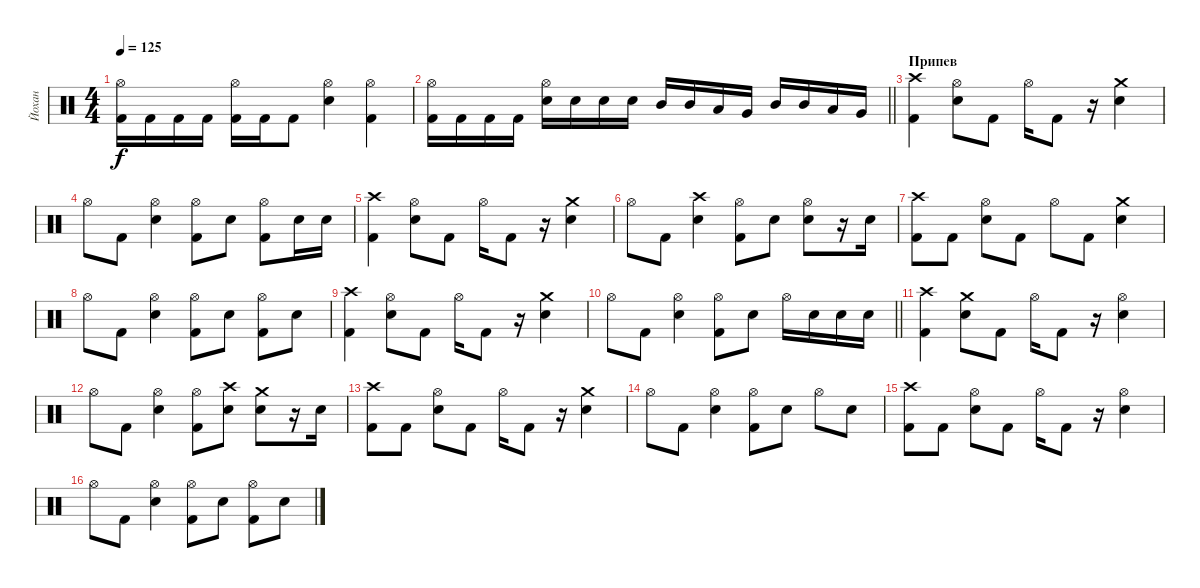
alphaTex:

\track ("Йохан" "Йохан") {instrument percussion}
\staff {score}
\articulation defaults
\ts (4 4)
\tempo 125
\clef neutral
\ks c
("Hi-Hat (open)" "Kick (hit) 2").16{dy f} "Kick (hit) 2".16 "Kick (hit) 2".16 "Kick (hit) 2".16 ("Hi-Hat (open)" "Kick (hit) 2").16 "Kick (hit) 2".16 "Kick (hit) 2".8 ("Hi-Hat (open)" "Snare (hit) 2").4 ("Hi-Hat (open)" "Kick (hit) 2").4 |
\barLineRight lightlight
("Hi-Hat (open)" "Kick (hit) 2").16 "Kick (hit) 2".16 "Kick (hit) 2".16 "Kick (hit) 2".16 ("Hi-Hat (open)" "Snare (hit) 2").16 "Snare (hit) 2".16 "Snare (hit) 2".16 "Snare (hit) 2".16 "Mid Tom (hit)".16 "Mid Tom (hit)".16 "Low Tom (hit)".16 "Very Low Tom (hit)".16 "Mid Tom (hit)".16 "Mid Tom (hit)".16 "Low Tom (hit)".16 "Very Low Tom (hit)".16 |
\section ("" "Припев")
("Crash high (hit)" "Kick (hit) 2").4 ("Hi-Hat (open)" "Snare (hit) 2").8 "Kick (hit) 2".8 "Hi-Hat (open)".16 "Kick (hit) 2".8 r.16 ("Crash medium (hit)" "Snare (hit) 2").4 |
"Hi-Hat (open)".8 "Kick (hit) 2".8 ("Hi-Hat (open)" "Snare (hit) 2").4 ("Hi-Hat (open)" "Kick (hit) 2").8 "Snare (hit) 2".8 ("Hi-Hat (open)" "Kick (hit) 2").8 "Snare (hit) 2".16 "Snare (hit) 2".16 |
("Crash high (hit)" "Kick (hit) 2").4 ("Hi-Hat (open)" "Snare (hit) 2").8 "Kick (hit) 2".8 "Hi-Hat (open)".16 "Kick (hit) 2".8 r.16 ("Crash medium (hit)" "Snare (hit) 2").4 |
"Hi-Hat (open)".8 "Kick (hit) 2".8 ("Crash high (hit)" "Snare (hit) 2").4 ("Hi-Hat (open)" "Kick (hit) 2").8 "Snare (hit) 2".8 ("Hi-Hat (open)" "Snare (hit) 2").8 r.16 "Snare (hit) 2".16 |
("Crash high (hit)" "Kick (hit) 2").8 "Kick (hit) 2".8 ("Hi-Hat (open)" "Snare (hit) 2").8 "Kick (hit) 2".8 "Hi-Hat (open)".8 "Kick (hit) 2".8 ("Crash medium (hit)" "Snare (hit) 2").4 |
"Hi-Hat (open)".8 "Kick (hit) 2".8 ("Hi-Hat (open)" "Snare (hit) 2").4 ("Hi-Hat (open)" "Kick (hit) 2").8 "Snare (hit) 2".8 ("Hi-Hat (open)" "Kick (hit) 2").8 "Snare (hit) 2".8 |
("Crash high (hit)" "Kick (hit) 2").4 ("Hi-Hat (open)" "Snare (hit) 2").8 "Kick (hit) 2".8 "Hi-Hat (open)".16 "Kick (hit) 2".8 r.16 ("Crash medium (hit)" "Snare (hit) 2").4 |
\barLineRight lightlight "Hi-Hat (open)".8 "Kick (hit) 2".8
("Hi-Hat (open)" "Snare (hit) 2").4 ("Hi-Hat (open)" "Kick (hit) 2").8 "Snare (hit) 2".8 "Hi-Hat (open)".16 "Snare (hit) 2".16 "Snare (hit) 2".16 "Snare (hit) 2".16 |
("Crash high (hit)" "Kick (hit) 2").4 ("Crash medium (hit)" "Snare (hit) 2").8 "Kick (hit) 2".8 "Hi-Hat (open)".16 "Kick (hit) 2".8 r.16 ("Hi-Hat (open)" "Snare (hit) 2").4 |
"Hi-Hat (open)".8 "Kick (hit) 2".8 ("Hi-Hat (open)" "Snare (hit) 2").4 ("Hi-Hat (open)" "Kick (hit) 2").8 ("Crash high (hit)" "Snare (hit) 2").8 ("Crash medium (hit)" "Snare (hit) 2").8 r.16 "Snare (hit) 2".16 |
("Crash high (hit)" "Kick (hit) 2").8 "Kick (hit) 2".8 ("Hi-Hat (open)" "Snare (hit) 2").8 "Kick (hit) 2".8 "Hi-Hat (open)".16 "Kick (hit) 2".8 r.16 ("Crash medium (hit)" "Snare (hit) 2").4 |
"Hi-Hat (open)".8 "Kick (hit) 2".8 ("Hi-Hat (open)" "Snare (hit) 2").4 ("Hi-Hat (open)" "Kick (hit) 2").8 "Snare (hit) 2".8 "Hi-Hat (open)".8 "Snare (hit) 2".8 |
("Crash high (hit)" "Kick (hit) 2").8 "Kick (hit) 2".8 ("Hi-Hat (open)" "Snare (hit) 2").8 "Kick (hit) 2".8 "Hi-Hat (open)".16 "Kick (hit) 2".8 r.16 ("Hi-Hat (open)" "Snare (hit) 2").4 |
"Hi-Hat (open)".8 "Kick (hit) 2".8 ("Hi-Hat (open)" "Snare (hit) 2").4 ("Hi-Hat (open)" "Kick (hit) 2").8 "Snare (hit) 2".8 ("Hi-Hat (open)" "Kick (hit) 2").8 "Snare (hit) 2".8
